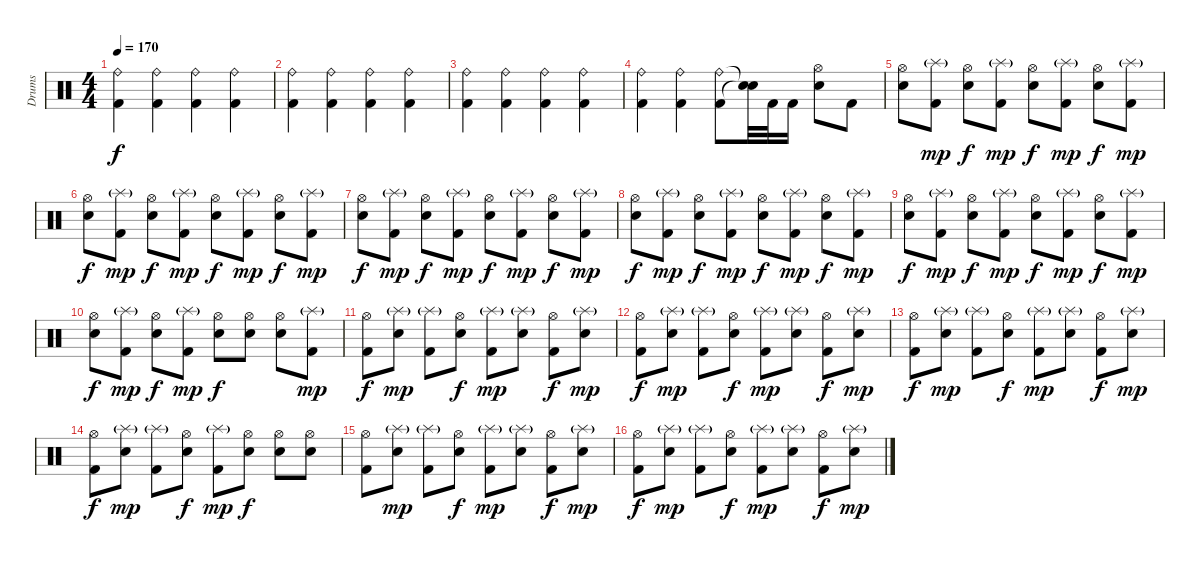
\track ("Drums" "Drums") {instrument percussion}
\staff {score}
\articulation defaults
\ts (4 4)
\tempo 170
\clef neutral
\ks c
("Ride (bell)" "Kick (hit) 2").4{dy f} ("Ride (bell)" "Kick (hit) 2").4 ("Ride (bell)" "Kick (hit) 2").4 ("Ride (bell)" "Kick (hit) 2").4 |
("Ride (bell)" "Kick (hit) 2").4 ("Ride (bell)" "Kick (hit) 2").4 ("Ride (bell)" "Kick (hit) 2").4 ("Ride (bell)" "Kick (hit) 2").4 |
("Ride (bell)" "Kick (hit) 2").4 ("Ride (bell)" "Kick (hit) 2").4 ("Ride (bell)" "Kick (hit) 2").4 ("Ride (bell)" "Kick (hit) 2").4 |
("Ride (bell)" "Kick (hit) 2").4 ("Ride (bell)" "Kick (hit) 2").4 ("Ride (bell)" "Kick (hit) 2").8 ("Snare (hit)"{t} "Snare (hit)"{t}).32 "Kick (hit) 2".32 "Kick (hit) 2".16 ("Hi-Hat (open)" "Snare (hit) 2").8 "Kick (hit) 2".8 |
("Hi-Hat (open)" "Snare (hit) 2").8 ("Splash (hit)"{g} "Kick (hit) 2").8{dy mp} ("Hi-Hat (open)" "Snare (hit) 2").8{dy f} ("Splash (hit)"{g} "Kick (hit) 2").8{dy mp} ("Hi-Hat (open)" "Snare (hit) 2").8{dy f} ("Splash (hit)"{g} "Kick (hit) 2").8{dy mp} ("Hi-Hat (open)" "Snare (hit) 2").8{dy f} ("Splash (hit)"{g} "Kick (hit) 2").8{dy mp} |
("Hi-Hat (open)" "Snare (hit) 2").8{dy f} ("Splash (hit)"{g} "Kick (hit) 2").8{dy mp} ("Hi-Hat (open)" "Snare (hit) 2").8{dy f} ("Splash (hit)"{g} "Kick (hit) 2").8{dy mp} ("Hi-Hat (open)" "Snare (hit) 2").8{dy f} ("Splash (hit)"{g} "Kick (hit) 2").8{dy mp} ("Hi-Hat (open)" "Snare (hit) 2").8{dy f} ("Splash (hit)"{g} "Kick (hit) 2").8{dy mp} |
("Hi-Hat (open)" "Snare (hit) 2").8{dy f} ("Splash (hit)"{g} "Kick (hit) 2").8{dy mp} ("Hi-Hat (open)" "Snare (hit) 2").8{dy f} ("Splash (hit)"{g} "Kick (hit) 2").8{dy mp} ("Hi-Hat (open)" "Snare (hit) 2").8{dy f} ("Splash (hit)"{g} "Kick (hit) 2").8{dy mp} ("Hi-Hat (open)" "Snare (hit) 2").8{dy f} ("Splash (hit)"{g} "Kick (hit) 2").8{dy mp} |
("Hi-Hat (open)" "Snare (hit) 2").8{dy f} ("Splash (hit)"{g} "Kick (hit) 2").8{dy mp} ("Hi-Hat (open)" "Snare (hit) 2").8{dy f} ("Splash (hit)"{g} "Kick (hit) 2").8{dy mp} ("Hi-Hat (open)" "Snare (hit) 2").8{dy f} ("Splash (hit)"{g} "Kick (hit) 2").8{dy mp} ("Hi-Hat (open)" "Snare (hit) 2").8{dy f} ("Splash (hit)"{g} "Kick (hit) 2").8{dy mp} |
("Hi-Hat (open)" "Snare (hit) 2").8{dy f} ("Splash (hit)"{g} "Kick (hit) 2").8{dy mp} ("Hi-Hat (open)" "Snare (hit) 2").8{dy f} ("Splash (hit)"{g} "Kick (hit) 2").8{dy mp} ("Hi-Hat (open)" "Snare (hit) 2").8{dy f} ("Splash (hit)"{g} "Kick (hit) 2").8{dy mp} ("Hi-Hat (open)" "Snare (hit) 2").8{dy f} ("Splash (hit)"{g} "Kick (hit) 2").8{dy mp} |
("Hi-Hat (open)" "Snare (hit) 2").8{dy f} ("Splash (hit)"{g} "Kick (hit) 2").8{dy mp} ("Hi-Hat (open)" "Snare (hit) 2").8{dy f} ("Splash (hit)"{g} "Kick (hit) 2").8{dy mp} ("Hi-Hat (open)" "Snare (hit) 2").8{dy f} ("Hi-Hat (open)" "Snare (hit) 2").8 ("Hi-Hat (open)" "Snare (hit) 2").8 ("Splash (hit)"{g} "Kick (hit) 2").8{dy mp} |
("Hi-Hat (open)" "Kick (hit) 2").8{dy f} ("Splash (hit)"{g} "Snare (hit) 2").8{dy mp} ("Splash (hit)"{g} "Kick (hit) 2").8 ("Hi-Hat (open)" "Snare (hit) 2").8{dy f} ("Splash (hit)"{g} "Kick (hit) 2").8{dy mp} ("Splash (hit)"{g} "Snare (hit) 2").8 ("Hi-Hat (open)" "Kick (hit) 2").8{dy f} ("Splash (hit)"{g} "Snare (hit) 2").8{dy mp} |
("Hi-Hat (open)" "Kick (hit) 2").8{dy f} ("Splash (hit)"{g} "Snare (hit) 2").8{dy mp} ("Splash (hit)"{g} "Kick (hit) 2").8 ("Hi-Hat (open)" "Snare (hit) 2").8{dy f} ("Splash (hit)"{g} "Kick (hit) 2").8{dy mp} ("Splash (hit)"{g} "Snare (hit) 2").8 ("Hi-Hat (open)" "Kick (hit) 2").8{dy f} ("Splash (hit)"{g} "Snare (hit) 2").8{dy mp} |
("Hi-Hat (open)" "Kick (hit) 2").8{dy f} ("Splash (hit)"{g} "Snare (hit) 2").8{dy mp} ("Splash (hit)"{g} "Kick (hit) 2").8 ("Hi-Hat (open)" "Snare (hit) 2").8{dy f} ("Splash (hit)"{g} "Kick (hit) 2").8{dy mp} ("Splash (hit)"{g} "Snare (hit) 2").8 ("Hi-Hat (open)" "Kick (hit) 2").8{dy f} ("Splash (hit)"{g} "Snare (hit) 2").8{dy mp} |
("Hi-Hat (open)" "Kick (hit) 2").8{dy f} ("Splash (hit)"{g} "Snare (hit) 2").8{dy mp} ("Splash (hit)"{g} "Kick (hit) 2").8 ("Hi-Hat (open)" "Snare (hit) 2").8{dy f} ("Splash (hit)"{g} "Kick (hit) 2").8{dy mp} ("Hi-Hat (open)" "Snare (hit) 2").8{dy f} ("Hi-Hat (open)" "Snare (hit) 2").8 ("Hi-Hat (open)" "Snare (hit) 2").8 |
("Hi-Hat (open)" "Kick (hit) 2").8 ("Splash (hit)"{g} "Snare (hit) 2").8{dy mp} ("Splash (hit)"{g} "Kick (hit) 2").8 ("Hi-Hat (open)" "Snare (hit) 2").8{dy f} ("Splash (hit)"{g} "Kick (hit) 2").8{dy mp} ("Splash (hit)"{g} "Snare (hit) 2").8 ("Hi-Hat (open)" "Kick (hit) 2").8{dy f} ("Splash (hit)"{g} "Snare (hit) 2").8{dy mp} |
("Hi-Hat (open)" "Kick (hit) 2").8{dy f} ("Splash (hit)"{g} "Snare (hit) 2").8{dy mp} ("Splash (hit)"{g} "Kick (hit) 2").8 ("Hi-Hat (open)" "Snare (hit) 2").8{dy f} ("Splash (hit)"{g} "Kick (hit) 2").8{dy mp} ("Splash (hit)"{g} "Snare (hit) 2").8 ("Hi-Hat (open)" "Kick (hit) 2").8{dy f} ("Splash (hit)"{g} "Snare (hit) 2").8{dy mp}
